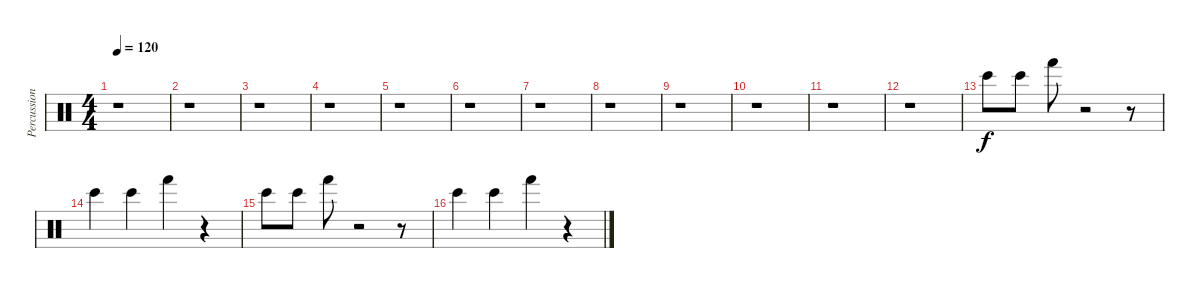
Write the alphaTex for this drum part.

\track ("Percussion" "Percussion") {instrument percussion}
\staff {score}
\articulation defaults
\ts (4 4)
\tempo 120
\clef neutral
\ks c
r.1{dy f} |
r.1 |
r.1 |
r.1 |
r.1 |
r.1 |
r.1 |
r.1 |
r.1 |
r.1 |
r.1 |
r.1 |
"Bongo High (hit)".8 "Bongo High (hit)".8 "Hand (hit)".8 r.2 r.8 |
"Bongo High (hit)".4 "Bongo High (hit)".4 "Hand (hit)".4 r.4 |
"Bongo High (hit)".8 "Bongo High (hit)".8 "Hand (hit)".8 r.2 r.8 |
"Bongo High (hit)".4 "Bongo High (hit)".4 "Hand (hit)".4 r.4
